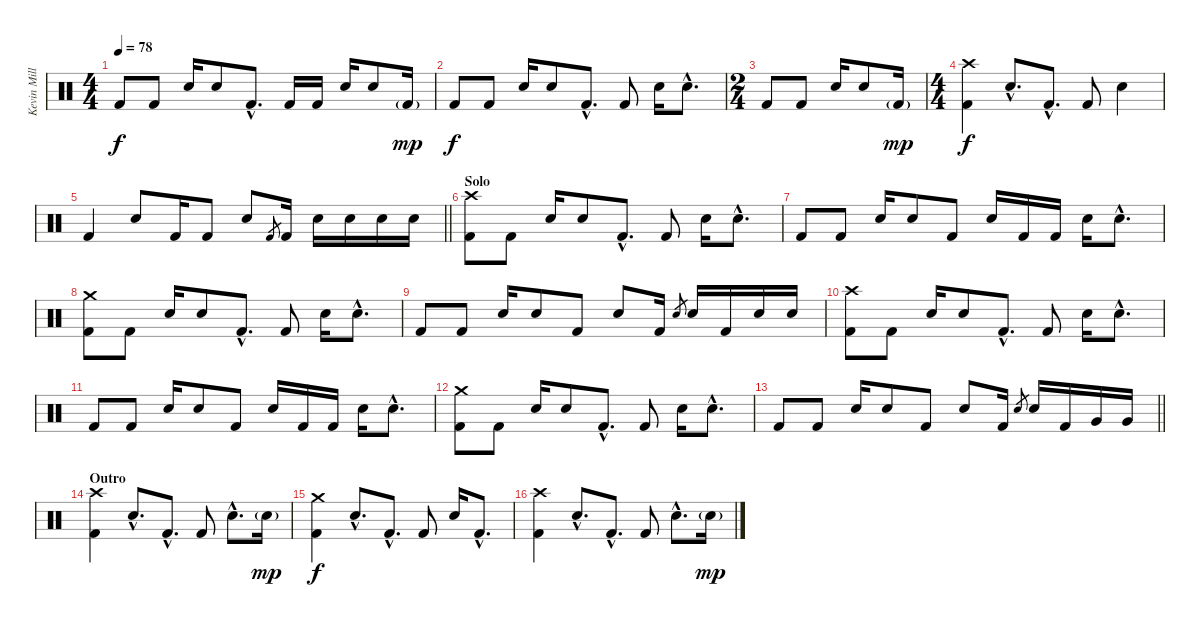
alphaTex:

\track ("Kevin Miller (Drums)" "Kevin Mill") {instrument percussion}
\staff {score}
\articulation defaults
\ts (4 4)
\tempo 78
\clef neutral
\ks c "Kick (hit) 2".8{dy f} "Kick (hit) 2".8 "Electric Snare (hit)".16 "Electric Snare (hit)".8 "Kick (hit) 2"{hac}.8{d} "Kick (hit) 2".16 "Kick (hit) 2".16 "Electric Snare (hit)".16 "Electric Snare (hit)".8 "Kick (hit) 2"{g}.16{dy mp}
|
"Kick (hit) 2".8{dy f} "Kick (hit) 2".8 "Electric Snare (hit)".16 "Electric Snare (hit)".8 "Kick (hit) 2"{hac}.8{d} "Kick (hit) 2".8 "Electric Snare (hit)".16 "Electric Snare (hit)"{hac}.8{d} |
\ts (2 4)
"Kick (hit) 2".8 "Kick (hit) 2".8 "Electric Snare (hit)".16 "Electric Snare (hit)".8 "Kick (hit) 2"{g}.16{dy mp} |
\ts (4 4)
("Crash high (hit)" "Kick (hit) 2").4{dy f} "Electric Snare (hit)"{hac}.8{d} "Kick (hit) 2"{hac}.8{d} "Kick (hit) 2".8 "Electric Snare (hit)".4 |
\barLineRight lightlight "Kick (hit) 2".4 "Electric Snare (hit)".8 "Kick (hit) 2".16 "Kick (hit) 2".8 "Electric Snare (hit)".8 "Kick (hit) 2".8{gr} "Kick (hit) 2".16 "Electric Snare (hit)".16 "Electric Snare (hit)".16 "Electric Snare (hit)".16 "Electric Snare (hit)".16
|
\section ("" "Solo")
("Crash high (hit)" "Kick (hit) 2").8 "Kick (hit) 2".8 "Electric Snare (hit)".16 "Electric Snare (hit)".8 "Kick (hit) 2"{hac}.8{d} "Kick (hit) 2".8 "Electric Snare (hit)".16 "Electric Snare (hit)"{hac}.8{d} |
"Kick (hit) 2".8 "Kick (hit) 2".8 "Electric Snare (hit)".16 "Electric Snare (hit)".8 "Kick (hit) 2".8 "Electric Snare (hit)".16 "Kick (hit) 2".16 "Kick (hit) 2".16 "Electric Snare (hit)".16 "Electric Snare (hit)"{hac}.8{d} |
("Crash medium (hit)" "Kick (hit) 2").8 "Kick (hit) 2".8 "Electric Snare (hit)".16 "Electric Snare (hit)".8 "Kick (hit) 2"{hac}.8{d} "Kick (hit) 2".8 "Electric Snare (hit)".16 "Electric Snare (hit)"{hac}.8{d} |
"Kick (hit) 2".8 "Kick (hit) 2".8 "Electric Snare (hit)".16 "Electric Snare (hit)".8 "Kick (hit) 2".8 "Electric Snare (hit)".8 "Kick (hit) 2".16 "Electric Snare (hit)".8{gr} "Electric Snare (hit)".16 "Kick (hit) 2".16 "Electric Snare (hit)".16 "Electric Snare (hit)".16 |
("Crash high (hit)" "Kick (hit) 2").8 "Kick (hit) 2".8 "Electric Snare (hit)".16 "Electric Snare (hit)".8 "Kick (hit) 2"{hac}.8{d} "Kick (hit) 2".8 "Electric Snare (hit)".16 "Electric Snare (hit)"{hac}.8{d} |
"Kick (hit) 2".8 "Kick (hit) 2".8 "Electric Snare (hit)".16 "Electric Snare (hit)".8 "Kick (hit) 2".8 "Electric Snare (hit)".16 "Kick (hit) 2".16 "Kick (hit) 2".16 "Electric Snare (hit)".16 "Electric Snare (hit)"{hac}.8{d} |
("Crash medium (hit)" "Kick (hit) 2").8 "Kick (hit) 2".8 "Electric Snare (hit)".16 "Electric Snare (hit)".8 "Kick (hit) 2"{hac}.8{d} "Kick (hit) 2".8 "Electric Snare (hit)".16 "Electric Snare (hit)"{hac}.8{d} |
\barLineRight lightlight "Kick (hit) 2".8 "Kick (hit) 2".8 "Electric Snare (hit)".16 "Electric Snare (hit)".8 "Kick (hit) 2".8 "Electric Snare (hit)".8 "Kick (hit) 2".16 "Electric Snare (hit)".8{gr} "Electric Snare (hit)".16 "Kick (hit) 2".16 "Very Low Tom (hit)".16 "Very Low Tom (hit)".16
|
\section ("" "Outro")
("Crash high (hit)" "Kick (hit) 2").4 "Electric Snare (hit)"{hac}.8{d} "Kick (hit) 2"{hac}.8{d} "Kick (hit) 2".8 "Electric Snare (hit)"{hac}.8{d} "Electric Snare (hit)"{g}.16{dy mp} |
("Crash medium (hit)" "Kick (hit) 2").4{dy f} "Electric Snare (hit)"{hac}.8{d} "Kick (hit) 2"{hac}.8{d} "Kick (hit) 2".8 "Electric Snare (hit)".16 "Kick (hit) 2"{hac}.8{d} |
("Crash high (hit)" "Kick (hit) 2").4 "Electric Snare (hit)"{hac}.8{d} "Kick (hit) 2"{hac}.8{d} "Kick (hit) 2".8 "Electric Snare (hit)"{hac}.8{d} "Electric Snare (hit)"{g}.16{dy mp}
